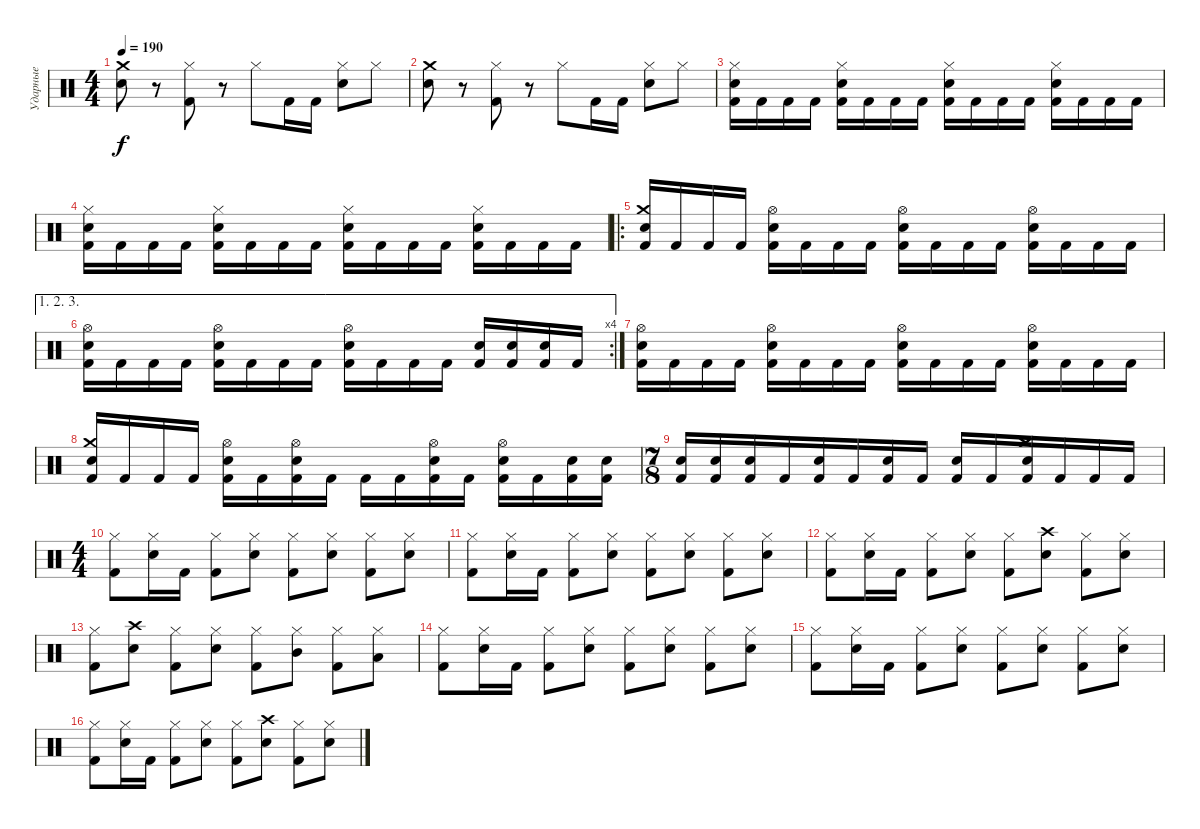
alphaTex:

\track ("Ударные" "Ударные") {instrument percussion}
\staff {score}
\articulation defaults
\ts (4 4)
\tempo 190
\clef neutral
\ks c
("Snare (hit) 2" "Crash medium (hit)").8{dy f} r.8 ("Kick (hit) 2" "Hi-Hat (closed)").8 r.8 "Hi-Hat (closed)".8 "Kick (hit) 2".16 "Kick (hit) 2".16 ("Snare (hit) 2" "Hi-Hat (closed)").8 "Hi-Hat (closed)".8 |
("Snare (hit) 2" "Crash medium (hit)").8 r.8 ("Kick (hit) 2" "Hi-Hat (closed)").8 r.8 "Hi-Hat (closed)".8 "Kick (hit) 2".16 "Kick (hit) 2".16 ("Snare (hit) 2" "Hi-Hat (closed)").8 "Hi-Hat (closed)".8 |
("Kick (hit) 2" "Snare (hit) 2" "Hi-Hat (closed)").16 "Kick (hit) 2".16 "Kick (hit) 2".16 "Kick (hit) 2".16 ("Kick (hit) 2" "Snare (hit) 2" "Hi-Hat (closed)").16 "Kick (hit) 2".16 "Kick (hit) 2".16 "Kick (hit) 2".16 ("Kick (hit) 2" "Snare (hit) 2" "Hi-Hat (closed)").16 "Kick (hit) 2".16 "Kick (hit) 2".16 "Kick (hit) 2".16 ("Kick (hit) 2" "Snare (hit) 2" "Hi-Hat (closed)").16 "Kick (hit) 2".16 "Kick (hit) 2".16 "Kick (hit) 2".16 |
("Kick (hit) 2" "Snare (hit) 2" "Hi-Hat (closed)").16 "Kick (hit) 2".16 "Kick (hit) 2".16 "Kick (hit) 2".16 ("Kick (hit) 2" "Snare (hit) 2" "Hi-Hat (closed)").16 "Kick (hit) 2".16 "Kick (hit) 2".16 "Kick (hit) 2".16 ("Kick (hit) 2" "Snare (hit) 2" "Hi-Hat (closed)").16 "Kick (hit) 2".16 "Kick (hit) 2".16 "Kick (hit) 2".16 ("Kick (hit) 2" "Snare (hit) 2" "Hi-Hat (closed)").16 "Kick (hit) 2".16 "Kick (hit) 2".16 "Kick (hit) 2".16 |
\ro
("Kick (hit) 2" "Snare (hit) 2" "Crash medium (hit)").16 "Kick (hit) 2".16 "Kick (hit) 2".16 "Kick (hit) 2".16 ("Kick (hit) 2" "Snare (hit) 2" "Hi-Hat (open)").16 "Kick (hit) 2".16 "Kick (hit) 2".16 "Kick (hit) 2".16 ("Kick (hit) 2" "Snare (hit) 2" "Hi-Hat (open)").16 "Kick (hit) 2".16 "Kick (hit) 2".16 "Kick (hit) 2".16 ("Kick (hit) 2" "Snare (hit) 2" "Hi-Hat (open)").16 "Kick (hit) 2".16 "Kick (hit) 2".16 "Kick (hit) 2".16 |
\ae (1 2 3)
\rc 4
("Kick (hit) 2" "Snare (hit) 2" "Hi-Hat (open)").16 "Kick (hit) 2".16 "Kick (hit) 2".16 "Kick (hit) 2".16 ("Kick (hit) 2" "Snare (hit) 2" "Hi-Hat (open)").16 "Kick (hit) 2".16 "Kick (hit) 2".16 "Kick (hit) 2".16 ("Kick (hit) 2" "Snare (hit) 2" "Hi-Hat (open)").16 "Kick (hit) 2".16 "Kick (hit) 2".16 "Kick (hit) 2".16 ("Kick (hit) 2" "Snare (hit) 2").16 ("Kick (hit) 2" "Snare (hit) 2").16 ("Kick (hit) 2" "Snare (hit) 2").16 "Kick (hit) 2".16 |
("Kick (hit) 2" "Snare (hit) 2" "Hi-Hat (open)").16 "Kick (hit) 2".16 "Kick (hit) 2".16 "Kick (hit) 2".16 ("Kick (hit) 2" "Snare (hit) 2" "Hi-Hat (open)").16 "Kick (hit) 2".16 "Kick (hit) 2".16 "Kick (hit) 2".16 ("Kick (hit) 2" "Snare (hit) 2" "Hi-Hat (open)").16 "Kick (hit) 2".16 "Kick (hit) 2".16 "Kick (hit) 2".16 ("Kick (hit) 2" "Snare (hit) 2" "Hi-Hat (open)").16 "Kick (hit) 2".16 "Kick (hit) 2".16 "Kick (hit) 2".16 |
("Kick (hit) 2" "Snare (hit) 2" "Crash medium (hit)").16 "Kick (hit) 2".16 "Kick (hit) 2".16 "Kick (hit) 2".16 ("Kick (hit) 2" "Snare (hit) 2" "Hi-Hat (open)").16 "Kick (hit) 2".16 ("Kick (hit) 2" "Snare (hit) 2" "Hi-Hat (open)").16 "Kick (hit) 2".16 "Kick (hit) 2".16 "Kick (hit) 2".16 ("Kick (hit) 2" "Snare (hit) 2" "Hi-Hat (open)").16 "Kick (hit) 2".16 ("Kick (hit) 2" "Snare (hit) 2" "Hi-Hat (open)").16 "Kick (hit) 2".16 ("Kick (hit) 2" "Snare (hit) 2").16 ("Kick (hit) 2" "Snare (hit) 2").16 |
\ts (7 8)
("Kick (hit) 2" "Snare (hit) 2").16 ("Kick (hit) 2" "Snare (hit) 2").16 ("Kick (hit) 2" "Snare (hit) 2").16 "Kick (hit) 2".16 ("Kick (hit) 2" "Snare (hit) 2").16 "Kick (hit) 2".16 ("Kick (hit) 2" "Snare (hit) 2").16 "Kick (hit) 2".16 ("Kick (hit) 2" "Snare (hit) 2").16 "Kick (hit) 2".16 ("Kick (hit) 2" "Snare (hit) 2" "Crash medium (hit)").16 "Kick (hit) 2".16 "Kick (hit) 2".16 "Kick (hit) 2".16 |
\ts (4 4)
("Kick (hit) 2" "Hi-Hat (closed)").8 ("Snare (hit) 2" "Hi-Hat (closed)").16 "Kick (hit) 2".16 ("Kick (hit) 2" "Hi-Hat (closed)").8 ("Snare (hit) 2" "Hi-Hat (closed)").8 ("Kick (hit) 2" "Hi-Hat (closed)").8 ("Snare (hit) 2" "Hi-Hat (closed)").8 ("Kick (hit) 2" "Hi-Hat (closed)").8 ("Snare (hit) 2" "Hi-Hat (closed)").8 |
("Kick (hit) 2" "Hi-Hat (closed)").8 ("Snare (hit) 2" "Hi-Hat (closed)").16 "Kick (hit) 2".16 ("Kick (hit) 2" "Hi-Hat (closed)").8 ("Snare (hit) 2" "Hi-Hat (closed)").8 ("Kick (hit) 2" "Hi-Hat (closed)").8 ("Snare (hit) 2" "Hi-Hat (closed)").8 ("Kick (hit) 2" "Hi-Hat (closed)").8 ("Snare (hit) 2" "Hi-Hat (closed)").8 |
("Kick (hit) 2" "Hi-Hat (closed)").8 ("Snare (hit) 2" "Hi-Hat (closed)").16 "Kick (hit) 2".16 ("Kick (hit) 2" "Hi-Hat (closed)").8 ("Snare (hit) 2" "Hi-Hat (closed)").8 ("Kick (hit) 2" "Hi-Hat (closed)").8 ("Snare (hit) 2" "Crash high (hit)").8 ("Kick (hit) 2" "Hi-Hat (closed)").8 ("Snare (hit) 2" "Hi-Hat (closed)").8 |
("Kick (hit) 2" "Hi-Hat (closed)").8 ("Snare (hit) 2" "Crash high (hit)").8 ("Kick (hit) 2" "Hi-Hat (closed)").8 ("Snare (hit) 2" "Hi-Hat (closed)").8 ("Kick (hit) 2" "Hi-Hat (closed)").8 ("Hi-Hat (closed)" "Mid Tom (hit)").8 ("Kick (hit) 2" "Hi-Hat (closed)").8 ("Hi-Hat (closed)" "Low Tom (hit)").8 |
("Kick (hit) 2" "Hi-Hat (closed)").8 ("Snare (hit) 2" "Hi-Hat (closed)").16 "Kick (hit) 2".16 ("Kick (hit) 2" "Hi-Hat (closed)").8 ("Snare (hit) 2" "Hi-Hat (closed)").8 ("Kick (hit) 2" "Hi-Hat (closed)").8 ("Snare (hit) 2" "Hi-Hat (closed)").8 ("Kick (hit) 2" "Hi-Hat (closed)").8 ("Snare (hit) 2" "Hi-Hat (closed)").8 |
("Kick (hit) 2" "Hi-Hat (closed)").8 ("Snare (hit) 2" "Hi-Hat (closed)").16 "Kick (hit) 2".16 ("Kick (hit) 2" "Hi-Hat (closed)").8 ("Snare (hit) 2" "Hi-Hat (closed)").8 ("Kick (hit) 2" "Hi-Hat (closed)").8 ("Snare (hit) 2" "Hi-Hat (closed)").8 ("Kick (hit) 2" "Hi-Hat (closed)").8 ("Snare (hit) 2" "Hi-Hat (closed)").8 |
("Kick (hit) 2" "Hi-Hat (closed)").8 ("Snare (hit) 2" "Hi-Hat (closed)").16 "Kick (hit) 2".16 ("Kick (hit) 2" "Hi-Hat (closed)").8 ("Snare (hit) 2" "Hi-Hat (closed)").8 ("Kick (hit) 2" "Hi-Hat (closed)").8 ("Snare (hit) 2" "Crash high (hit)").8 ("Kick (hit) 2" "Hi-Hat (closed)").8 ("Snare (hit) 2" "Hi-Hat (closed)").8
